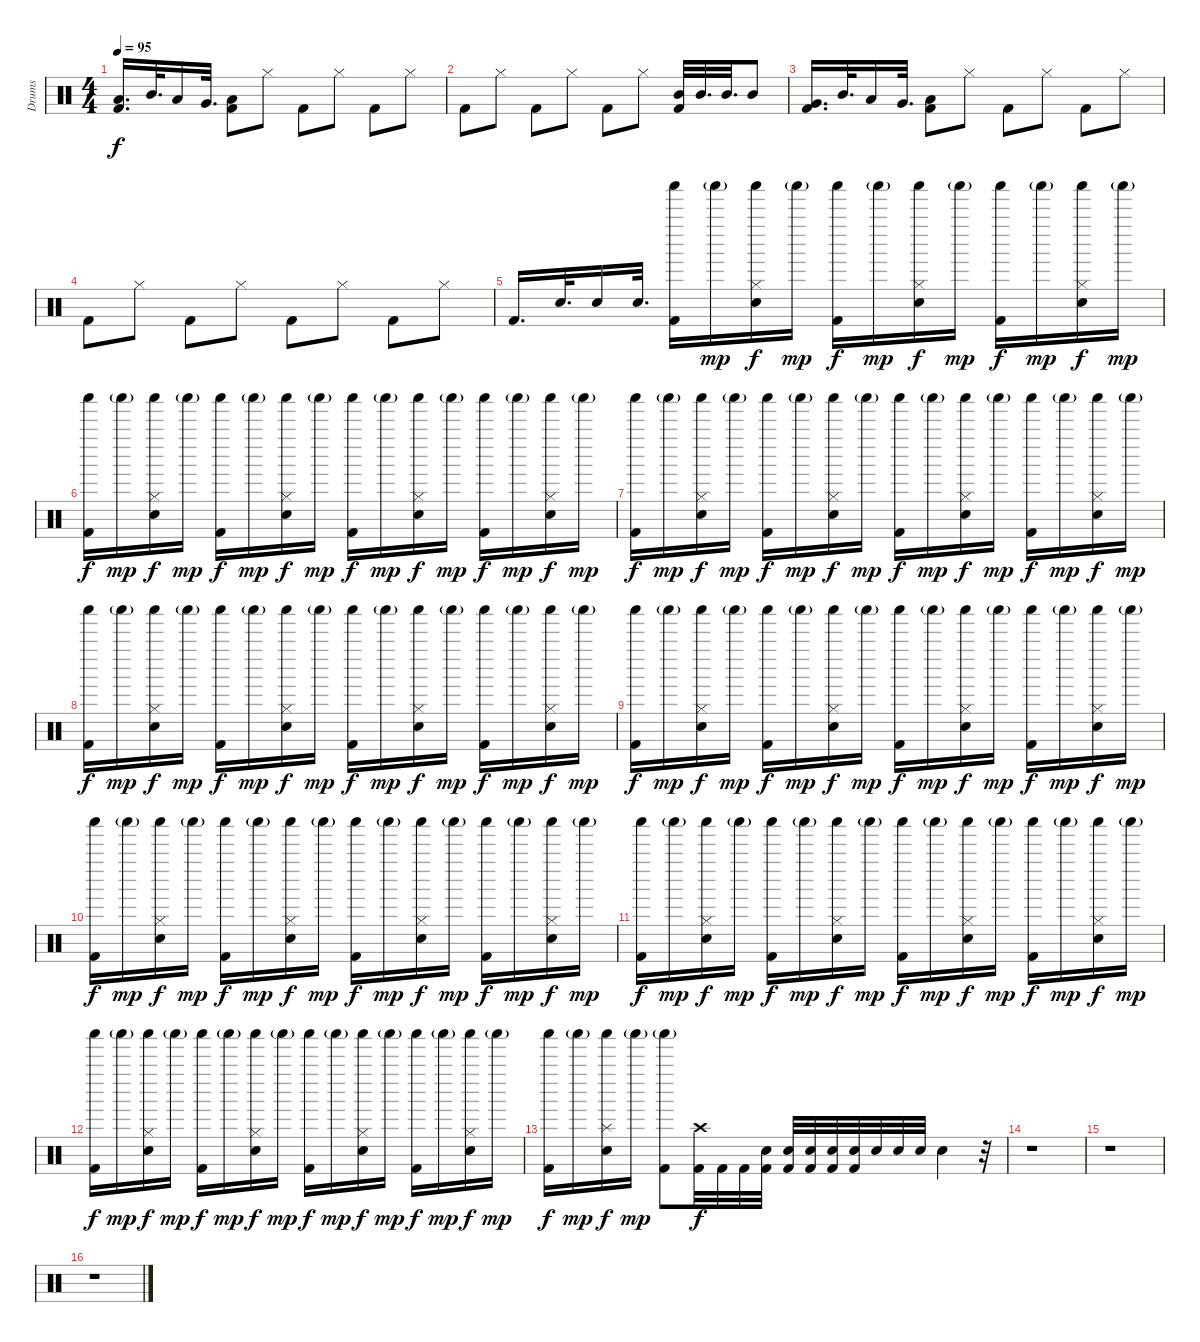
\track ("Drums" "Drums") {instrument percussion}
\staff {score}
\articulation defaults
\ts (4 4)
\tempo 95
\clef neutral
\ks c
("Low Floor Tom (hit)" "Kick (hit) 2").16{d dy f} "Mid Tom (hit)".32{d} "Low Tom (hit)".16 "Very Low Tom (hit)".32{d} ("Low Floor Tom (hit)" "Kick (hit) 2").8 "Hi-Hat (closed)".8 "Kick (hit) 2".8 "Hi-Hat (closed)".8 "Kick (hit) 2".8 "Hi-Hat (closed)".8 |
"Kick (hit) 2".8 "Hi-Hat (closed)".8 "Kick (hit) 2".8 "Hi-Hat (closed)".8 "Kick (hit) 2".8 "Hi-Hat (closed)".8 ("Mid Tom (hit)" "Kick (hit) 2").32 "Mid Tom (hit)".32{d} "Mid Tom (hit)".32{d} "Mid Tom (hit)".8 |
("Very Low Tom (hit)" "Kick (hit) 2").16{d} "Mid Tom (hit)".32{d} "Low Tom (hit)".16 "Very Low Tom (hit)".32{d} ("Low Floor Tom (hit)" "Kick (hit) 2").8 "Hi-Hat (closed)".8 "Kick (hit) 2".8 "Hi-Hat (closed)".8 "Kick (hit) 2".8 "Hi-Hat (closed)".8 |
"Kick (hit) 2".8 "Hi-Hat (closed)".8 "Kick (hit) 2".8 "Hi-Hat (closed)".8 "Kick (hit) 2".8 "Hi-Hat (closed)".8 "Kick (hit) 2".8 "Hi-Hat (closed)".8 |
"Kick (hit) 2".16{d} "Snare (hit) 2".32{d} "Snare (hit) 2".16 "Snare (hit) 2".32{d} ("Shaker (hit)" "Kick (hit) 2").16 "Shaker (hit)"{g}.16{dy mp} ("Shaker (hit)" "Hi-Hat (closed)" "Snare (hit) 2").16{dy f} "Shaker (hit)"{g}.16{dy mp} ("Shaker (hit)" "Kick (hit) 2").16{dy f} "Shaker (hit)"{g}.16{dy mp} ("Shaker (hit)" "Hi-Hat (closed)" "Snare (hit) 2").16{dy f} "Shaker (hit)"{g}.16{dy mp} ("Shaker (hit)" "Kick (hit) 2").16{dy f} "Shaker (hit)"{g}.16{dy mp} ("Shaker (hit)" "Hi-Hat (closed)" "Snare (hit) 2").16{dy f} "Shaker (hit)"{g}.16{dy mp} |
("Shaker (hit)" "Kick (hit) 2").16{dy f} "Shaker (hit)"{g}.16{dy mp} ("Shaker (hit)" "Hi-Hat (closed)" "Snare (hit) 2").16{dy f} "Shaker (hit)"{g}.16{dy mp} ("Shaker (hit)" "Kick (hit) 2").16{dy f} "Shaker (hit)"{g}.16{dy mp} ("Shaker (hit)" "Hi-Hat (closed)" "Snare (hit) 2").16{dy f} "Shaker (hit)"{g}.16{dy mp} ("Shaker (hit)" "Kick (hit) 2").16{dy f} "Shaker (hit)"{g}.16{dy mp} ("Shaker (hit)" "Hi-Hat (closed)" "Snare (hit) 2").16{dy f} "Shaker (hit)"{g}.16{dy mp} ("Shaker (hit)" "Kick (hit) 2").16{dy f} "Shaker (hit)"{g}.16{dy mp} ("Shaker (hit)" "Hi-Hat (closed)" "Snare (hit) 2").16{dy f} "Shaker (hit)"{g}.16{dy mp} |
("Shaker (hit)" "Kick (hit) 2").16{dy f} "Shaker (hit)"{g}.16{dy mp} ("Shaker (hit)" "Hi-Hat (closed)" "Snare (hit) 2").16{dy f} "Shaker (hit)"{g}.16{dy mp} ("Shaker (hit)" "Kick (hit) 2").16{dy f} "Shaker (hit)"{g}.16{dy mp} ("Shaker (hit)" "Hi-Hat (closed)" "Snare (hit) 2").16{dy f} "Shaker (hit)"{g}.16{dy mp} ("Shaker (hit)" "Kick (hit) 2").16{dy f} "Shaker (hit)"{g}.16{dy mp} ("Shaker (hit)" "Hi-Hat (closed)" "Snare (hit) 2").16{dy f} "Shaker (hit)"{g}.16{dy mp} ("Shaker (hit)" "Kick (hit) 2").16{dy f} "Shaker (hit)"{g}.16{dy mp} ("Shaker (hit)" "Hi-Hat (closed)" "Snare (hit) 2").16{dy f} "Shaker (hit)"{g}.16{dy mp} |
("Shaker (hit)" "Kick (hit) 2").16{dy f} "Shaker (hit)"{g}.16{dy mp} ("Shaker (hit)" "Hi-Hat (closed)" "Snare (hit) 2").16{dy f} "Shaker (hit)"{g}.16{dy mp} ("Shaker (hit)" "Kick (hit) 2").16{dy f} "Shaker (hit)"{g}.16{dy mp} ("Shaker (hit)" "Hi-Hat (closed)" "Snare (hit) 2").16{dy f} "Shaker (hit)"{g}.16{dy mp} ("Shaker (hit)" "Kick (hit) 2").16{dy f} "Shaker (hit)"{g}.16{dy mp} ("Shaker (hit)" "Hi-Hat (closed)" "Snare (hit) 2").16{dy f} "Shaker (hit)"{g}.16{dy mp} ("Shaker (hit)" "Kick (hit) 2").16{dy f} "Shaker (hit)"{g}.16{dy mp} ("Shaker (hit)" "Hi-Hat (closed)" "Snare (hit) 2").16{dy f} "Shaker (hit)"{g}.16{dy mp} |
("Shaker (hit)" "Kick (hit) 2").16{dy f} "Shaker (hit)"{g}.16{dy mp} ("Shaker (hit)" "Hi-Hat (closed)" "Snare (hit) 2").16{dy f} "Shaker (hit)"{g}.16{dy mp} ("Shaker (hit)" "Kick (hit) 2").16{dy f} "Shaker (hit)"{g}.16{dy mp} ("Shaker (hit)" "Hi-Hat (closed)" "Snare (hit) 2").16{dy f} "Shaker (hit)"{g}.16{dy mp} ("Shaker (hit)" "Kick (hit) 2").16{dy f} "Shaker (hit)"{g}.16{dy mp} ("Shaker (hit)" "Hi-Hat (closed)" "Snare (hit) 2").16{dy f} "Shaker (hit)"{g}.16{dy mp} ("Shaker (hit)" "Kick (hit) 2").16{dy f} "Shaker (hit)"{g}.16{dy mp} ("Shaker (hit)" "Hi-Hat (closed)" "Snare (hit) 2").16{dy f} "Shaker (hit)"{g}.16{dy mp} |
("Shaker (hit)" "Kick (hit) 2").16{dy f} "Shaker (hit)"{g}.16{dy mp} ("Shaker (hit)" "Hi-Hat (closed)" "Snare (hit) 2").16{dy f} "Shaker (hit)"{g}.16{dy mp} ("Shaker (hit)" "Kick (hit) 2").16{dy f} "Shaker (hit)"{g}.16{dy mp} ("Shaker (hit)" "Hi-Hat (closed)" "Snare (hit) 2").16{dy f} "Shaker (hit)"{g}.16{dy mp} ("Shaker (hit)" "Kick (hit) 2").16{dy f} "Shaker (hit)"{g}.16{dy mp} ("Shaker (hit)" "Hi-Hat (closed)" "Snare (hit) 2").16{dy f} "Shaker (hit)"{g}.16{dy mp} ("Shaker (hit)" "Kick (hit) 2").16{dy f} "Shaker (hit)"{g}.16{dy mp} ("Shaker (hit)" "Hi-Hat (closed)" "Snare (hit) 2").16{dy f} "Shaker (hit)"{g}.16{dy mp} |
("Shaker (hit)" "Kick (hit) 2").16{dy f} "Shaker (hit)"{g}.16{dy mp} ("Shaker (hit)" "Hi-Hat (closed)" "Snare (hit) 2").16{dy f} "Shaker (hit)"{g}.16{dy mp} ("Shaker (hit)" "Kick (hit) 2").16{dy f} "Shaker (hit)"{g}.16{dy mp} ("Shaker (hit)" "Hi-Hat (closed)" "Snare (hit) 2").16{dy f} "Shaker (hit)"{g}.16{dy mp} ("Shaker (hit)" "Kick (hit) 2").16{dy f} "Shaker (hit)"{g}.16{dy mp} ("Shaker (hit)" "Hi-Hat (closed)" "Snare (hit) 2").16{dy f} "Shaker (hit)"{g}.16{dy mp} ("Shaker (hit)" "Kick (hit) 2").16{dy f} "Shaker (hit)"{g}.16{dy mp} ("Shaker (hit)" "Hi-Hat (closed)" "Snare (hit) 2").16{dy f} "Shaker (hit)"{g}.16{dy mp} |
("Shaker (hit)" "Kick (hit) 2").16{dy f} "Shaker (hit)"{g}.16{dy mp} ("Shaker (hit)" "Hi-Hat (closed)" "Snare (hit) 2").16{dy f} "Shaker (hit)"{g}.16{dy mp} ("Shaker (hit)" "Kick (hit) 2").16{dy f} "Shaker (hit)"{g}.16{dy mp} ("Shaker (hit)" "Hi-Hat (closed)" "Snare (hit) 2").16{dy f} "Shaker (hit)"{g}.16{dy mp} ("Shaker (hit)" "Kick (hit) 2").16{dy f} "Shaker (hit)"{g}.16{dy mp} ("Shaker (hit)" "Hi-Hat (closed)" "Snare (hit) 2").16{dy f} "Shaker (hit)"{g}.16{dy mp} ("Shaker (hit)" "Kick (hit) 2").16{dy f} "Shaker (hit)"{g}.16{dy mp} ("Shaker (hit)" "Hi-Hat (closed)" "Snare (hit) 2").16{dy f} "Shaker (hit)"{g}.16{dy mp} |
("Shaker (hit)" "Kick (hit) 2").16{dy f} "Shaker (hit)"{g}.16{dy mp} ("Shaker (hit)" "Splash (hit)" "Snare (hit) 2").16{dy f} "Shaker (hit)"{g}.16{dy mp} ("Shaker (hit)"{g} "Kick (hit) 2").8 ("Crash high (hit)" "Kick (hit) 2").32{dy f} "Kick (hit) 2".32 "Kick (hit) 2".32 ("Snare (hit) 2" "Kick (hit) 2").32 ("Snare (hit) 2" "Kick (hit) 2").32 ("Snare (hit) 2" "Kick (hit) 2").32 ("Snare (hit) 2" "Kick (hit) 2").32 ("Snare (hit) 2" "Kick (hit) 2").32 "Snare (hit) 2".32 "Snare (hit) 2".32 "Snare (hit) 2".32 "Snare (hit) 2".4 r.32 |
r.1 |
r.1 |
r.1
